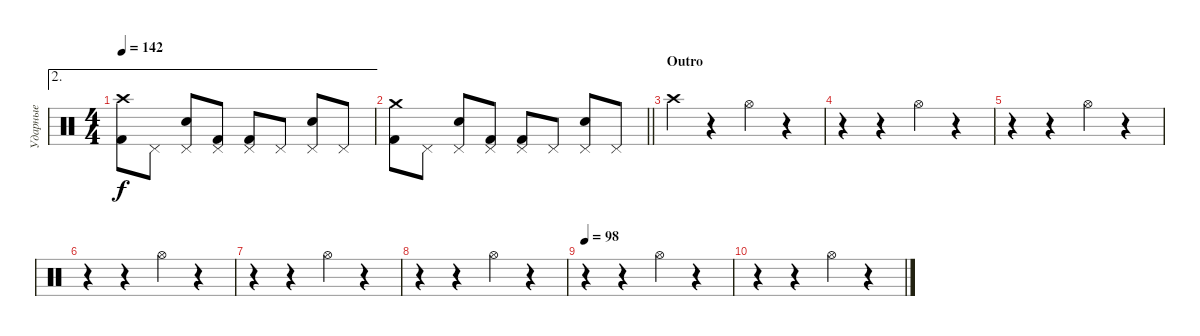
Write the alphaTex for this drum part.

\track ("Ударные" "Ударные") {instrument percussion}
\staff {score}
\articulation defaults
\ae 2
\ts (4 4)
\tempo 142
\clef neutral
\ks c
("Crash high (hit)" "Kick (hit) 2").8{dy f} "Pedal Hi-Hat (hit)".8 ("Pedal Hi-Hat (hit)" "Snare (hit) 2").8 ("Pedal Hi-Hat (hit)" "Kick (hit) 2").8 ("Pedal Hi-Hat (hit)" "Kick (hit) 2").8 "Pedal Hi-Hat (hit)".8 ("Pedal Hi-Hat (hit)" "Snare (hit) 2").8 "Pedal Hi-Hat (hit)".8 |
\barLineRight lightlight
("Crash medium (hit)" "Kick (hit) 2").8 "Pedal Hi-Hat (hit)".8 ("Pedal Hi-Hat (hit)" "Snare (hit) 2").8 ("Pedal Hi-Hat (hit)" "Kick (hit) 2").8 ("Pedal Hi-Hat (hit)" "Kick (hit) 2").8 "Pedal Hi-Hat (hit)".8 ("Pedal Hi-Hat (hit)" "Snare (hit) 2").8 "Pedal Hi-Hat (hit)".8 |
\section ("" "Outro")
"Crash high (hit)".4 r.4 "Hi-Hat (open)".4 r.4 |
r.4 r.4 "Hi-Hat (open)".4 r.4 |
r.4 r.4 "Hi-Hat (open)".4 r.4 |
r.4 r.4 "Hi-Hat (open)".4 r.4 |
r.4 r.4 "Hi-Hat (open)".4 r.4 |
r.4 r.4 "Hi-Hat (open)".4 r.4 |
\tempo 98
r.4 r.4 "Hi-Hat (open)".4 r.4 |
r.4 r.4 "Hi-Hat (open)".4 r.4
